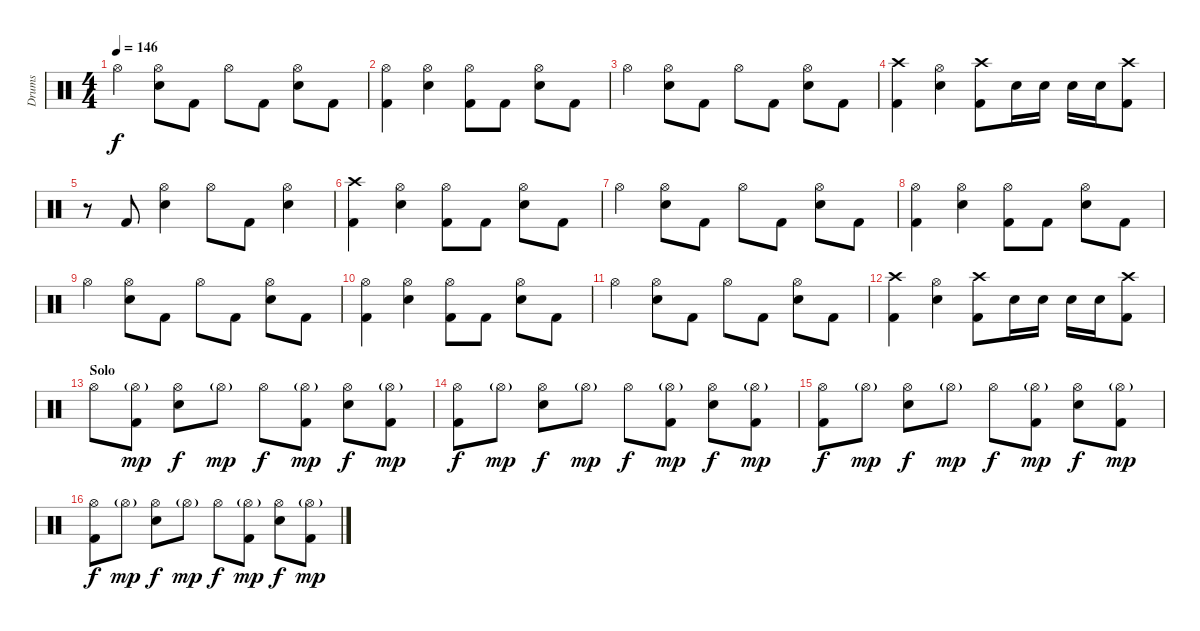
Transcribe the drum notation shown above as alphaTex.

\track ("Drums" "Drums") {instrument percussion}
\staff {score}
\articulation defaults
\ts (4 4)
\tempo 146
\clef neutral
\ks c "Hi-Hat (open)".4{dy f}
("Hi-Hat (open)" "Electric Snare (hit)").8 "Kick (hit) 2".8 "Hi-Hat (open)".8 "Kick (hit) 2".8 ("Hi-Hat (open)" "Electric Snare (hit)").8 "Kick (hit) 2".8 |
("Hi-Hat (open)" "Kick (hit) 2").4 ("Hi-Hat (open)" "Electric Snare (hit)").4 ("Hi-Hat (open)" "Kick (hit) 2").8 "Kick (hit) 2".8 ("Hi-Hat (open)" "Electric Snare (hit)").8 "Kick (hit) 2".8 |
"Hi-Hat (open)".4 ("Hi-Hat (open)" "Electric Snare (hit)").8 "Kick (hit) 2".8 "Hi-Hat (open)".8 "Kick (hit) 2".8 ("Hi-Hat (open)" "Electric Snare (hit)").8 "Kick (hit) 2".8 |
("Crash high (hit)" "Kick (hit) 2").4 ("Hi-Hat (open)" "Electric Snare (hit)").4 ("Crash high (hit)" "Kick (hit) 2").8 "Electric Snare (hit)".16 "Electric Snare (hit)".16 "Electric Snare (hit)".16 "Electric Snare (hit)".16 ("Crash high (hit)" "Kick (hit) 2").8 |
r.8 "Kick (hit) 2".8 ("Hi-Hat (open)" "Electric Snare (hit)").4 "Hi-Hat (open)".8 "Kick (hit) 2".8 ("Hi-Hat (open)" "Electric Snare (hit)").4 |
("Crash high (hit)" "Kick (hit) 2").4 ("Hi-Hat (open)" "Electric Snare (hit)").4 ("Hi-Hat (open)" "Kick (hit) 2").8 "Kick (hit) 2".8 ("Hi-Hat (open)" "Electric Snare (hit)").8 "Kick (hit) 2".8 |
"Hi-Hat (open)".4 ("Hi-Hat (open)" "Electric Snare (hit)").8 "Kick (hit) 2".8 "Hi-Hat (open)".8 "Kick (hit) 2".8 ("Hi-Hat (open)" "Electric Snare (hit)").8 "Kick (hit) 2".8 |
("Hi-Hat (open)" "Kick (hit) 2").4 ("Hi-Hat (open)" "Electric Snare (hit)").4 ("Hi-Hat (open)" "Kick (hit) 2").8 "Kick (hit) 2".8 ("Hi-Hat (open)" "Electric Snare (hit)").8 "Kick (hit) 2".8 |
"Hi-Hat (open)".4 ("Hi-Hat (open)" "Electric Snare (hit)").8 "Kick (hit) 2".8 "Hi-Hat (open)".8 "Kick (hit) 2".8 ("Hi-Hat (open)" "Electric Snare (hit)").8 "Kick (hit) 2".8 |
("Hi-Hat (open)" "Kick (hit) 2").4 ("Hi-Hat (open)" "Electric Snare (hit)").4 ("Hi-Hat (open)" "Kick (hit) 2").8 "Kick (hit) 2".8 ("Hi-Hat (open)" "Electric Snare (hit)").8 "Kick (hit) 2".8 |
"Hi-Hat (open)".4 ("Hi-Hat (open)" "Electric Snare (hit)").8 "Kick (hit) 2".8 "Hi-Hat (open)".8 "Kick (hit) 2".8 ("Hi-Hat (open)" "Electric Snare (hit)").8 "Kick (hit) 2".8 |
("Crash high (hit)" "Kick (hit) 2").4 ("Hi-Hat (open)" "Electric Snare (hit)").4 ("Crash high (hit)" "Kick (hit) 2").8 "Electric Snare (hit)".16 "Electric Snare (hit)".16 "Electric Snare (hit)".16 "Electric Snare (hit)".16 ("Crash high (hit)" "Kick (hit) 2").8 |
\section ("" "Solo")
"Hi-Hat (open)".8 ("Hi-Hat (open)"{g} "Kick (hit) 2").8{dy mp} ("Hi-Hat (open)" "Electric Snare (hit)").8{dy f} "Hi-Hat (open)"{g}.8{dy mp} "Hi-Hat (open)".8{dy f} ("Hi-Hat (open)"{g} "Kick (hit) 2").8{dy mp} ("Hi-Hat (open)" "Electric Snare (hit)").8{dy f} ("Hi-Hat (open)"{g} "Kick (hit) 2").8{dy mp} |
("Hi-Hat (open)" "Kick (hit) 2").8{dy f} "Hi-Hat (open)"{g}.8{dy mp} ("Hi-Hat (open)" "Electric Snare (hit)").8{dy f} "Hi-Hat (open)"{g}.8{dy mp} "Hi-Hat (open)".8{dy f} ("Hi-Hat (open)"{g} "Kick (hit) 2").8{dy mp} ("Hi-Hat (open)" "Electric Snare (hit)").8{dy f} ("Hi-Hat (open)"{g} "Kick (hit) 2").8{dy mp} |
("Hi-Hat (open)" "Kick (hit) 2").8{dy f} "Hi-Hat (open)"{g}.8{dy mp} ("Hi-Hat (open)" "Electric Snare (hit)").8{dy f} "Hi-Hat (open)"{g}.8{dy mp} "Hi-Hat (open)".8{dy f} ("Hi-Hat (open)"{g} "Kick (hit) 2").8{dy mp} ("Hi-Hat (open)" "Electric Snare (hit)").8{dy f} ("Hi-Hat (open)"{g} "Kick (hit) 2").8{dy mp} |
("Hi-Hat (open)" "Kick (hit) 2").8{dy f} "Hi-Hat (open)"{g}.8{dy mp} ("Hi-Hat (open)" "Electric Snare (hit)").8{dy f} "Hi-Hat (open)"{g}.8{dy mp} "Hi-Hat (open)".8{dy f} ("Hi-Hat (open)"{g} "Kick (hit) 2").8{dy mp} ("Hi-Hat (open)" "Electric Snare (hit)").8{dy f} ("Hi-Hat (open)"{g} "Kick (hit) 2").8{dy mp}
